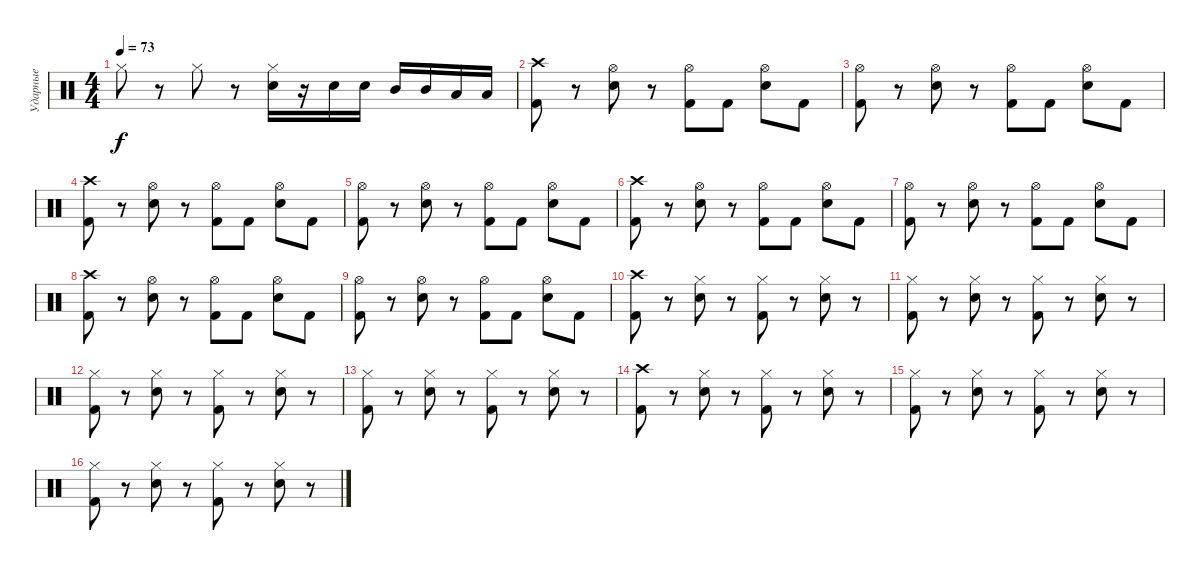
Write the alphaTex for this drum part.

\track ("Ударные" "Ударные") {instrument percussion}
\staff {score}
\articulation defaults
\ts (4 4)
\tempo 73
\clef neutral
\ks c "Hi-Hat (closed)".8{dy f}
r.8 "Hi-Hat (closed)".8 r.8 ("Electric Snare (hit)" "Hi-Hat (closed)").16 r.16 "Electric Snare (hit)".16 "Electric Snare (hit)".16 "Mid Tom (hit)".16 "Mid Tom (hit)".16 "Low Tom (hit)".16 "Low Tom (hit)".16 |
("Kick (hit) 2" "Crash high (hit)").8 r.8 ("Electric Snare (hit)" "Hi-Hat (open)").8 r.8 ("Kick (hit) 2" "Hi-Hat (open)").8 "Kick (hit) 2".8 ("Electric Snare (hit)" "Hi-Hat (open)").8 "Kick (hit) 2".8 |
("Kick (hit) 2" "Hi-Hat (open)").8 r.8 ("Electric Snare (hit)" "Hi-Hat (open)").8 r.8 ("Kick (hit) 2" "Hi-Hat (open)").8 "Kick (hit) 2".8 ("Electric Snare (hit)" "Hi-Hat (open)").8 "Kick (hit) 2".8 |
("Kick (hit) 2" "Crash high (hit)").8 r.8 ("Electric Snare (hit)" "Hi-Hat (open)").8 r.8 ("Kick (hit) 2" "Hi-Hat (open)").8 "Kick (hit) 2".8 ("Electric Snare (hit)" "Hi-Hat (open)").8 "Kick (hit) 2".8 |
("Kick (hit) 2" "Hi-Hat (open)").8 r.8 ("Electric Snare (hit)" "Hi-Hat (open)").8 r.8 ("Kick (hit) 2" "Hi-Hat (open)").8 "Kick (hit) 2".8 ("Electric Snare (hit)" "Hi-Hat (open)").8 "Kick (hit) 2".8 |
("Kick (hit) 2" "Crash high (hit)").8 r.8 ("Electric Snare (hit)" "Hi-Hat (open)").8 r.8 ("Kick (hit) 2" "Hi-Hat (open)").8 "Kick (hit) 2".8 ("Electric Snare (hit)" "Hi-Hat (open)").8 "Kick (hit) 2".8 |
("Kick (hit) 2" "Hi-Hat (open)").8 r.8 ("Electric Snare (hit)" "Hi-Hat (open)").8 r.8 ("Kick (hit) 2" "Hi-Hat (open)").8 "Kick (hit) 2".8 ("Electric Snare (hit)" "Hi-Hat (open)").8 "Kick (hit) 2".8 |
("Kick (hit) 2" "Crash high (hit)").8 r.8 ("Electric Snare (hit)" "Hi-Hat (open)").8 r.8 ("Kick (hit) 2" "Hi-Hat (open)").8 "Kick (hit) 2".8 ("Electric Snare (hit)" "Hi-Hat (open)").8 "Kick (hit) 2".8 |
("Kick (hit) 2" "Hi-Hat (open)").8 r.8 ("Electric Snare (hit)" "Hi-Hat (open)").8 r.8 ("Kick (hit) 2" "Hi-Hat (open)").8 "Kick (hit) 2".8 ("Electric Snare (hit)" "Hi-Hat (open)").8 "Kick (hit) 2".8 |
("Kick (hit) 2" "Crash high (hit)").8 r.8 ("Electric Snare (hit)" "Hi-Hat (closed)").8 r.8 ("Kick (hit) 2" "Hi-Hat (closed)").8 r.8 ("Electric Snare (hit)" "Hi-Hat (closed)").8 r.8 |
("Kick (hit) 2" "Hi-Hat (closed)").8 r.8 ("Electric Snare (hit)" "Hi-Hat (closed)").8 r.8 ("Kick (hit) 2" "Hi-Hat (closed)").8 r.8 ("Electric Snare (hit)" "Hi-Hat (closed)").8 r.8 |
("Kick (hit) 2" "Hi-Hat (closed)").8 r.8 ("Electric Snare (hit)" "Hi-Hat (closed)").8 r.8 ("Kick (hit) 2" "Hi-Hat (closed)").8 r.8 ("Electric Snare (hit)" "Hi-Hat (closed)").8 r.8 |
("Kick (hit) 2" "Hi-Hat (closed)").8 r.8 ("Electric Snare (hit)" "Hi-Hat (closed)").8 r.8 ("Kick (hit) 2" "Hi-Hat (closed)").8 r.8 ("Electric Snare (hit)" "Hi-Hat (closed)").8 r.8 |
("Kick (hit) 2" "Crash high (hit)").8 r.8 ("Electric Snare (hit)" "Hi-Hat (closed)").8 r.8 ("Kick (hit) 2" "Hi-Hat (closed)").8 r.8 ("Electric Snare (hit)" "Hi-Hat (closed)").8 r.8 |
("Kick (hit) 2" "Hi-Hat (closed)").8 r.8 ("Electric Snare (hit)" "Hi-Hat (closed)").8 r.8 ("Kick (hit) 2" "Hi-Hat (closed)").8 r.8 ("Electric Snare (hit)" "Hi-Hat (closed)").8 r.8 |
("Kick (hit) 2" "Hi-Hat (closed)").8 r.8 ("Electric Snare (hit)" "Hi-Hat (closed)").8 r.8 ("Kick (hit) 2" "Hi-Hat (closed)").8 r.8 ("Electric Snare (hit)" "Hi-Hat (closed)").8 r.8
